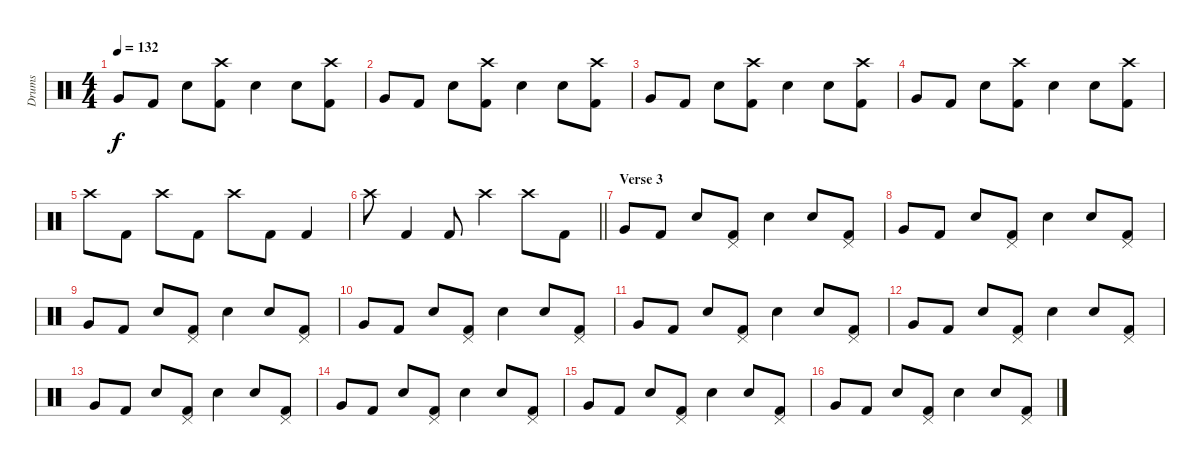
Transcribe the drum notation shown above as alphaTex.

\track ("Drums" "Drums") {instrument percussion}
\staff {score}
\articulation defaults
\ts (4 4)
\tempo 132
\clef neutral
\ks c "Very Low Tom (hit)".8{dy f} "Kick (hit) 2".8 "Snare (hit) 2".8
("Crash high (hit)" "Kick (hit) 2").8 "Snare (hit) 2".4 "Snare (hit) 2".8 ("Crash high (hit)" "Kick (hit) 2").8 |
"Very Low Tom (hit)".8 "Kick (hit) 2".8 "Snare (hit) 2".8 ("Crash high (hit)" "Kick (hit) 2").8 "Snare (hit) 2".4 "Snare (hit) 2".8 ("Crash high (hit)" "Kick (hit) 2").8 |
"Very Low Tom (hit)".8 "Kick (hit) 2".8 "Snare (hit) 2".8 ("Crash high (hit)" "Kick (hit) 2").8 "Snare (hit) 2".4 "Snare (hit) 2".8 ("Crash high (hit)" "Kick (hit) 2").8 |
"Very Low Tom (hit)".8 "Kick (hit) 2".8 "Snare (hit) 2".8 ("Crash high (hit)" "Kick (hit) 2").8 "Snare (hit) 2".4 "Snare (hit) 2".8 ("Crash high (hit)" "Kick (hit) 2").8 |
"Crash high (hit)".8 "Kick (hit) 2".8 "Crash high (hit)".8 "Kick (hit) 2".8 "Crash high (hit)".8 "Kick (hit) 2".8 "Kick (hit) 2".4 |
\barLineRight lightlight "Crash high (hit)".8 "Kick (hit) 2".4 "Kick (hit) 2".8 "Crash high (hit)".4 "Crash high (hit)".8 "Kick (hit) 2".8
|
\section ("" "Verse 3")
"Very Low Tom (hit)".8 "Kick (hit) 2".8 "Snare (hit) 2".8 ("Pedal Hi-Hat (hit)" "Kick (hit) 2").8 "Snare (hit) 2".4 "Snare (hit) 2".8 ("Pedal Hi-Hat (hit)" "Kick (hit) 2").8 |
"Very Low Tom (hit)".8 "Kick (hit) 2".8 "Snare (hit) 2".8 ("Pedal Hi-Hat (hit)" "Kick (hit) 2").8 "Snare (hit) 2".4 "Snare (hit) 2".8 ("Pedal Hi-Hat (hit)" "Kick (hit) 2").8 |
"Very Low Tom (hit)".8 "Kick (hit) 2".8 "Snare (hit) 2".8 ("Pedal Hi-Hat (hit)" "Kick (hit) 2").8 "Snare (hit) 2".4 "Snare (hit) 2".8 ("Pedal Hi-Hat (hit)" "Kick (hit) 2").8 |
"Very Low Tom (hit)".8 "Kick (hit) 2".8 "Snare (hit) 2".8 ("Pedal Hi-Hat (hit)" "Kick (hit) 2").8 "Snare (hit) 2".4 "Snare (hit) 2".8 ("Pedal Hi-Hat (hit)" "Kick (hit) 2").8 |
"Very Low Tom (hit)".8 "Kick (hit) 2".8 "Snare (hit) 2".8 ("Pedal Hi-Hat (hit)" "Kick (hit) 2").8 "Snare (hit) 2".4 "Snare (hit) 2".8 ("Pedal Hi-Hat (hit)" "Kick (hit) 2").8 |
"Very Low Tom (hit)".8 "Kick (hit) 2".8 "Snare (hit) 2".8 ("Pedal Hi-Hat (hit)" "Kick (hit) 2").8 "Snare (hit) 2".4 "Snare (hit) 2".8 ("Pedal Hi-Hat (hit)" "Kick (hit) 2").8 |
"Very Low Tom (hit)".8 "Kick (hit) 2".8 "Snare (hit) 2".8 ("Pedal Hi-Hat (hit)" "Kick (hit) 2").8 "Snare (hit) 2".4 "Snare (hit) 2".8 ("Pedal Hi-Hat (hit)" "Kick (hit) 2").8 |
"Very Low Tom (hit)".8 "Kick (hit) 2".8 "Snare (hit) 2".8 ("Pedal Hi-Hat (hit)" "Kick (hit) 2").8 "Snare (hit) 2".4 "Snare (hit) 2".8 ("Pedal Hi-Hat (hit)" "Kick (hit) 2").8 |
"Very Low Tom (hit)".8 "Kick (hit) 2".8 "Snare (hit) 2".8 ("Pedal Hi-Hat (hit)" "Kick (hit) 2").8 "Snare (hit) 2".4 "Snare (hit) 2".8 ("Pedal Hi-Hat (hit)" "Kick (hit) 2").8 |
"Very Low Tom (hit)".8 "Kick (hit) 2".8 "Snare (hit) 2".8 ("Pedal Hi-Hat (hit)" "Kick (hit) 2").8 "Snare (hit) 2".4 "Snare (hit) 2".8 ("Pedal Hi-Hat (hit)" "Kick (hit) 2").8
